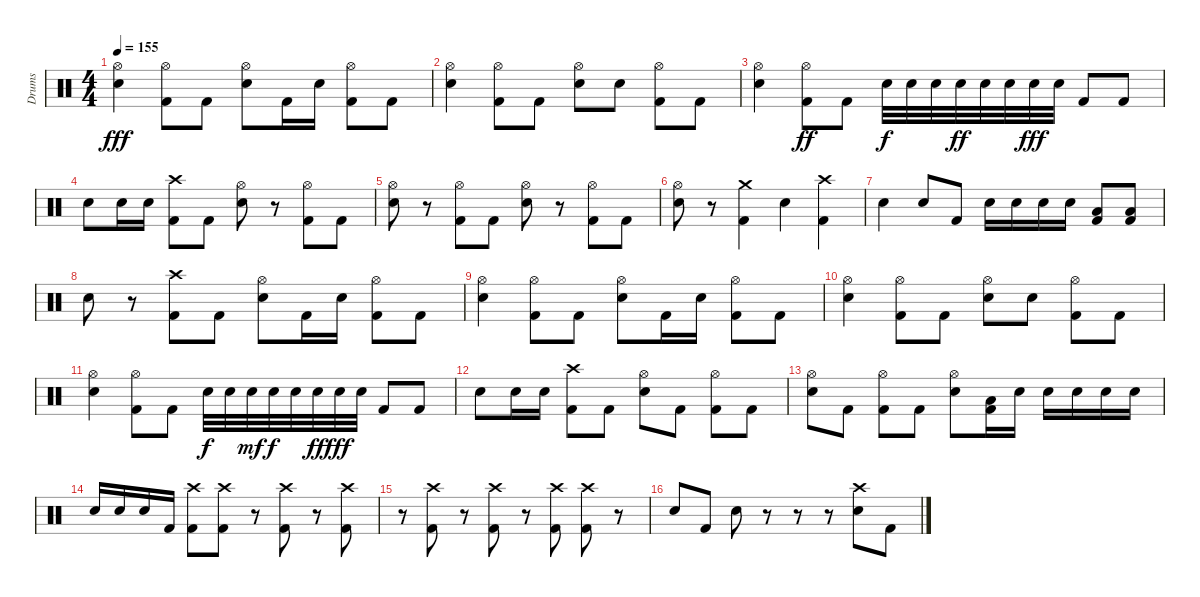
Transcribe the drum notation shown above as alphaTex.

\track ("Drums" "Drums") {instrument percussion}
\staff {score}
\articulation defaults
\ts (4 4)
\tempo 155
\clef neutral
\ks c
("Hi-Hat (open)" "Snare (hit) 2").4{dy fff} ("Hi-Hat (open)" "Kick (hit) 2").8 "Kick (hit) 2".8 ("Hi-Hat (open)" "Snare (hit) 2").8 "Kick (hit) 2".16 "Snare (hit) 2".16 ("Hi-Hat (open)" "Kick (hit) 2").8 "Kick (hit) 2".8 |
("Hi-Hat (open)" "Snare (hit) 2").4 ("Hi-Hat (open)" "Kick (hit) 2").8 "Kick (hit) 2".8 ("Hi-Hat (open)" "Snare (hit) 2").8 "Snare (hit) 2".8 ("Hi-Hat (open)" "Kick (hit) 2").8 "Kick (hit) 2".8 |
("Hi-Hat (open)" "Snare (hit) 2").4 ("Hi-Hat (open)" "Kick (hit) 2").8{dy ff} "Kick (hit) 2".8 "Snare (hit) 2".32{dy f} "Snare (hit) 2".32 "Snare (hit) 2".32 "Snare (hit) 2".32{dy ff} "Snare (hit) 2".32 "Snare (hit) 2".32 "Snare (hit) 2".32{dy fff} "Snare (hit) 2".32 "Kick (hit) 2".8 "Kick (hit) 2".8 |
"Snare (hit) 2".8 "Snare (hit) 2".16 "Snare (hit) 2".16 ("Crash high (hit)" "Kick (hit) 2").8 "Kick (hit) 2".8 ("Hi-Hat (open)" "Snare (hit) 2").8 r.8 ("Hi-Hat (open)" "Kick (hit) 2").8 "Kick (hit) 2".8 |
("Hi-Hat (open)" "Snare (hit) 2").8 r.8 ("Hi-Hat (open)" "Kick (hit) 2").8 "Kick (hit) 2".8 ("Hi-Hat (open)" "Snare (hit) 2").8 r.8 ("Hi-Hat (open)" "Kick (hit) 2").8 "Kick (hit) 2".8 |
("Hi-Hat (open)" "Snare (hit) 2").8 r.8 ("Crash medium (hit)" "Kick (hit) 2").4 "Snare (hit) 2".4 ("Crash high (hit)" "Kick (hit) 2").4 |
"Snare (hit) 2".4 "Snare (hit) 2".8 "Kick (hit) 2".8 "Snare (hit) 2".16 "Snare (hit) 2".16 "Snare (hit) 2".16 "Snare (hit) 2".16 ("Low Floor Tom (hit)" "Kick (hit) 2").8 ("Low Floor Tom (hit)" "Kick (hit) 2").8 |
"Snare (hit) 2".8 r.8 ("Crash high (hit)" "Kick (hit) 2").8 "Kick (hit) 2".8 ("Hi-Hat (open)" "Snare (hit) 2").8 "Kick (hit) 2".16 "Snare (hit) 2".16 ("Hi-Hat (open)" "Kick (hit) 2").8 "Kick (hit) 2".8 |
("Hi-Hat (open)" "Snare (hit) 2").4 ("Hi-Hat (open)" "Kick (hit) 2").8 "Kick (hit) 2".8 ("Hi-Hat (open)" "Snare (hit) 2").8 "Kick (hit) 2".16 "Snare (hit) 2".16 ("Hi-Hat (open)" "Kick (hit) 2").8 "Kick (hit) 2".8 |
("Hi-Hat (open)" "Snare (hit) 2").4 ("Hi-Hat (open)" "Kick (hit) 2").8 "Kick (hit) 2".8 ("Hi-Hat (open)" "Snare (hit) 2").8 "Snare (hit) 2".8 ("Hi-Hat (open)" "Kick (hit) 2").8 "Kick (hit) 2".8 |
("Hi-Hat (open)" "Snare (hit) 2").4 ("Hi-Hat (open)" "Kick (hit) 2").8 "Kick (hit) 2".8 "Snare (hit) 2".32{dy f} "Snare (hit) 2".32 "Snare (hit) 2".32{dy mf} "Snare (hit) 2".32{dy f} "Snare (hit) 2".32 "Snare (hit) 2".32{dy ff} "Snare (hit) 2".32{dy fff} "Snare (hit) 2".32 "Kick (hit) 2".8 "Kick (hit) 2".8 |
"Snare (hit) 2".8 "Snare (hit) 2".16 "Snare (hit) 2".16 ("Crash high (hit)" "Kick (hit) 2").8 "Kick (hit) 2".8 ("Hi-Hat (open)" "Snare (hit) 2").8 "Kick (hit) 2".8 ("Hi-Hat (open)" "Kick (hit) 2").8 "Kick (hit) 2".8 |
("Hi-Hat (open)" "Snare (hit) 2").8 "Kick (hit) 2".8 ("Hi-Hat (open)" "Kick (hit) 2").8 "Kick (hit) 2".8 ("Hi-Hat (open)" "Snare (hit) 2").8 ("Low Floor Tom (hit)" "Kick (hit) 2").16 "Snare (hit) 2".16 "Snare (hit) 2".16 "Snare (hit) 2".16 "Snare (hit) 2".16 "Snare (hit) 2".16 |
"Snare (hit) 2".16 "Snare (hit) 2".16 "Snare (hit) 2".16 "Kick (hit) 2".16 ("Crash high (hit)" "Kick (hit) 2").8 ("Crash high (hit)" "Kick (hit) 2").8 r.8 ("Crash high (hit)" "Kick (hit) 2").8 r.8 ("Crash high (hit)" "Kick (hit) 2").8 |
r.8 ("Crash high (hit)" "Kick (hit) 2").8 r.8 ("Crash high (hit)" "Kick (hit) 2").8 r.8 ("Crash high (hit)" "Kick (hit) 2").8 ("Crash high (hit)" "Kick (hit) 2").8 r.8 |
"Snare (hit) 2".8 "Kick (hit) 2".8 "Snare (hit) 2".8 r.8 r.8 r.8 ("Crash high (hit)" "Snare (hit) 2").8 "Kick (hit) 2".8
